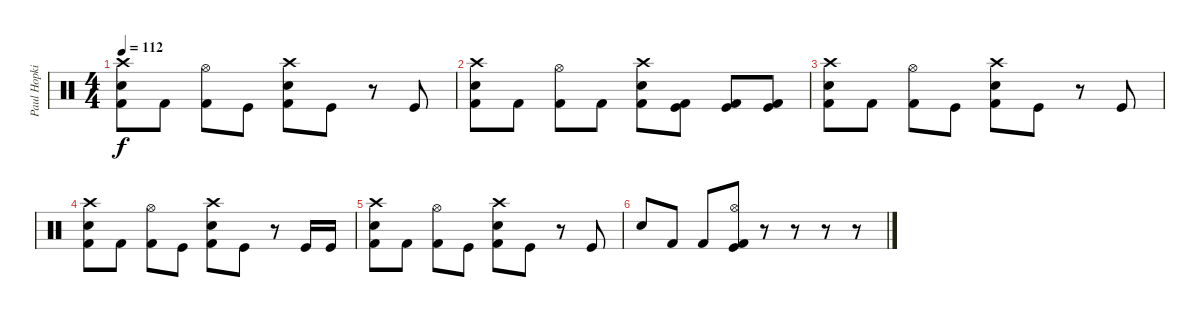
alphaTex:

\track ("Paul Hopkins" "Paul Hopki") {instrument percussion}
\staff {score}
\articulation defaults
\ts (4 4)
\tempo 112
\clef neutral
\ks c
("Kick (hit) 2" "Electric Snare (hit)" "Crash high (hit)").8{dy f} "Kick (hit) 2".8 ("Kick (hit) 2" "Hi-Hat (open)").8 "Kick (hit)".8 ("Kick (hit) 2" "Electric Snare (hit)" "Crash high (hit)").8 "Kick (hit)".8 r.8 "Kick (hit)".8 |
("Kick (hit) 2" "Electric Snare (hit)" "Crash high (hit)").8 "Kick (hit) 2".8 ("Kick (hit) 2" "Hi-Hat (open)").8 "Kick (hit) 2".8 ("Kick (hit) 2" "Electric Snare (hit)" "Crash high (hit)").8 ("Kick (hit) 2" "Kick (hit)").8 ("Kick (hit) 2" "Kick (hit)").8 ("Kick (hit) 2" "Kick (hit)").8 |
("Kick (hit) 2" "Electric Snare (hit)" "Crash high (hit)").8 "Kick (hit) 2".8 ("Kick (hit) 2" "Hi-Hat (open)").8 "Kick (hit)".8 ("Kick (hit) 2" "Electric Snare (hit)" "Crash high (hit)").8 "Kick (hit)".8 r.8 "Kick (hit)".8 |
("Kick (hit) 2" "Electric Snare (hit)" "Crash high (hit)").8 "Kick (hit) 2".8 ("Kick (hit) 2" "Hi-Hat (open)").8 "Kick (hit)".8 ("Kick (hit) 2" "Electric Snare (hit)" "Crash high (hit)").8 "Kick (hit)".8 r.8 "Kick (hit)".16 "Kick (hit)".16 |
("Kick (hit) 2" "Electric Snare (hit)" "Crash high (hit)").8 "Kick (hit) 2".8 ("Kick (hit) 2" "Hi-Hat (open)").8 "Kick (hit)".8 ("Kick (hit) 2" "Electric Snare (hit)" "Crash high (hit)").8 "Kick (hit)".8 r.8 "Kick (hit)".8 |
"Electric Snare (hit)".8 "Kick (hit) 2".8 "Kick (hit) 2".8 ("Kick (hit) 2" "Kick (hit)" "Hi-Hat (open)").8 r.8 r.8 r.8 r.8
